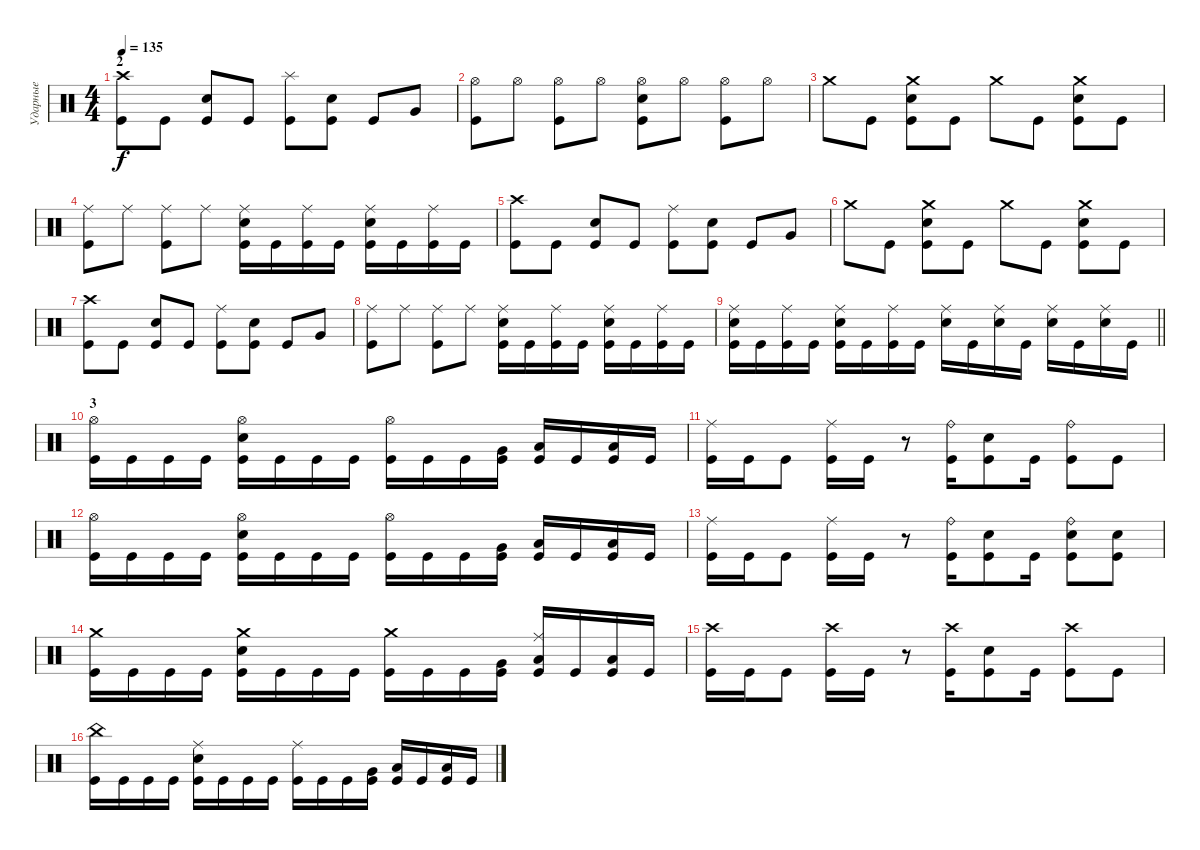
\track ("Ударные" "Ударные") {instrument percussion}
\staff {score}
\articulation defaults
\ts (4 4)
\section ("" "2")
\tempo 135
\clef neutral
\ks c
("Crash high (hit)" "Kick (hit)").8{dy f} "Kick (hit)".8 ("Electric Snare (hit)" "Kick (hit)").8 "Kick (hit)".8 ("Splash (hit)" "Kick (hit)").8 ("Electric Snare (hit)" "Kick (hit)").8 "Kick (hit)".8 "Very Low Tom (hit)".8 |
("Hi-Hat (open)" "Kick (hit)").8 "Hi-Hat (open)".8 ("Hi-Hat (open)" "Kick (hit)").8 "Hi-Hat (open)".8 ("Hi-Hat (open)" "Electric Snare (hit)" "Kick (hit)").8 "Hi-Hat (open)".8 ("Hi-Hat (open)" "Kick (hit)").8 "Hi-Hat (open)".8 |
"Crash medium (hit)".8 "Kick (hit)".8 ("Crash medium (hit)" "Electric Snare (hit)" "Kick (hit)").8 "Kick (hit)".8 "Crash medium (hit)".8 "Kick (hit)".8 ("Crash medium (hit)" "Electric Snare (hit)" "Kick (hit)").8 "Kick (hit)".8 |
("Ride (middle)" "Kick (hit)").8 "Ride (middle)".8 ("Ride (middle)" "Kick (hit)").8 "Ride (middle)".8 ("Ride (middle)" "Electric Snare (hit)" "Kick (hit)").16 "Kick (hit)".16 ("Ride (middle)" "Kick (hit)").16 "Kick (hit)".16 ("Ride (middle)" "Electric Snare (hit)" "Kick (hit)").16 "Kick (hit)".16 ("Ride (middle)" "Kick (hit)").16 "Kick (hit)".16 |
("Crash high (hit)" "Kick (hit)").8 "Kick (hit)".8 ("Electric Snare (hit)" "Kick (hit)").8 "Kick (hit)".8 ("Ride (middle)" "Kick (hit)").8 ("Electric Snare (hit)" "Kick (hit)").8 "Kick (hit)".8 "Very Low Tom (hit)".8 |
"Crash medium (hit)".8 "Kick (hit)".8 ("Crash medium (hit)" "Electric Snare (hit)" "Kick (hit)").8 "Kick (hit)".8 "Crash medium (hit)".8 "Kick (hit)".8 ("Crash medium (hit)" "Electric Snare (hit)" "Kick (hit)").8 "Kick (hit)".8 |
("Crash high (hit)" "Kick (hit)").8 "Kick (hit)".8 ("Electric Snare (hit)" "Kick (hit)").8 "Kick (hit)".8 ("Ride (middle)" "Kick (hit)").8 ("Electric Snare (hit)" "Kick (hit)").8 "Kick (hit)".8 "Very Low Tom (hit)".8 |
("Ride (middle)" "Kick (hit)").8 "Ride (middle)".8 ("Ride (middle)" "Kick (hit)").8 "Ride (middle)".8 ("Ride (middle)" "Electric Snare (hit)" "Kick (hit)").16 "Kick (hit)".16 ("Ride (middle)" "Kick (hit)").16 "Kick (hit)".16 ("Ride (middle)" "Electric Snare (hit)" "Kick (hit)").16 "Kick (hit)".16 ("Ride (middle)" "Kick (hit)").16 "Kick (hit)".16 |
\barLineRight lightlight
("Ride (middle)" "Electric Snare (hit)" "Kick (hit)").16 "Kick (hit)".16 ("Ride (middle)" "Kick (hit)").16 "Kick (hit)".16 ("Ride (middle)" "Electric Snare (hit)" "Kick (hit)").16 "Kick (hit)".16 ("Ride (middle)" "Kick (hit)").16 "Kick (hit)".16 ("Ride (middle)" "Electric Snare (hit)").16 "Kick (hit)".16 ("Ride (middle)" "Electric Snare (hit)").16 "Kick (hit)".16 ("Ride (middle)" "Electric Snare (hit)").16 "Kick (hit)".16 ("Ride (middle)" "Electric Snare (hit)").16 "Kick (hit)".16 |
\section ("" "3")
("Hi-Hat (open)" "Kick (hit)").16 "Kick (hit)".16 "Kick (hit)".16 "Kick (hit)".16 ("Hi-Hat (open)" "Electric Snare (hit)" "Kick (hit)").16 "Kick (hit)".16 "Kick (hit)".16 "Kick (hit)".16 ("Hi-Hat (open)" "Kick (hit)").16 "Kick (hit)".16 "Kick (hit)".16 ("Very Low Tom (hit)" "Kick (hit)").16 ("Low Tom (hit)" "Kick (hit)").16 "Kick (hit)".16 ("Low Tom (hit)" "Kick (hit)").16 "Kick (hit)".16 |
("Ride (middle)" "Kick (hit)").16 "Kick (hit)".16 "Kick (hit)".8 ("Ride (middle)" "Kick (hit)").16 "Kick (hit)".16 r.8 ("Ride (bell)" "Kick (hit)").16 ("Electric Snare (hit)" "Kick (hit)").8 "Kick (hit)".16 ("Ride (bell)" "Kick (hit)").8 "Kick (hit)".8 |
("Hi-Hat (open)" "Kick (hit)").16 "Kick (hit)".16 "Kick (hit)".16 "Kick (hit)".16 ("Hi-Hat (open)" "Electric Snare (hit)" "Kick (hit)").16 "Kick (hit)".16 "Kick (hit)".16 "Kick (hit)".16 ("Hi-Hat (open)" "Kick (hit)").16 "Kick (hit)".16 "Kick (hit)".16 ("Very Low Tom (hit)" "Kick (hit)").16 ("Low Tom (hit)" "Kick (hit)").16 "Kick (hit)".16 ("Low Tom (hit)" "Kick (hit)").16 "Kick (hit)".16 |
("Ride (middle)" "Kick (hit)").16 "Kick (hit)".16 "Kick (hit)".8 ("Ride (middle)" "Kick (hit)").16 "Kick (hit)".16 r.8 ("Ride (bell)" "Kick (hit)").16 ("Electric Snare (hit)" "Kick (hit)").8 "Kick (hit)".16 ("Ride (bell)" "Electric Snare (hit)" "Kick (hit)").8 ("Electric Snare (hit)" "Kick (hit)").8 |
("Crash medium (hit)" "Kick (hit)").16 "Kick (hit)".16 "Kick (hit)".16 "Kick (hit)".16 ("Crash medium (hit)" "Electric Snare (hit)" "Kick (hit)").16 "Kick (hit)".16 "Kick (hit)".16 "Kick (hit)".16 ("Crash medium (hit)" "Kick (hit)").16 "Kick (hit)".16 "Kick (hit)".16 ("Very Low Tom (hit)" "Kick (hit)").16 ("Ride (middle)" "Low Tom (hit)" "Kick (hit)").16 "Kick (hit)".16 ("Low Tom (hit)" "Kick (hit)").16 "Kick (hit)".16 |
("Crash high (hit)" "Kick (hit)").16 "Kick (hit)".16 "Kick (hit)".8 ("Crash high (hit)" "Kick (hit)").16 "Kick (hit)".16 r.8 ("Crash high (hit)" "Kick (hit)").16 ("Electric Snare (hit)" "Kick (hit)").8 "Kick (hit)".16 ("Crash high (hit)" "Kick (hit)").8 "Kick (hit)".8 |
("China (hit)" "Kick (hit)").16 "Kick (hit)".16 "Kick (hit)".16 "Kick (hit)".16 ("Ride (middle)" "Electric Snare (hit)" "Kick (hit)").16 "Kick (hit)".16 "Kick (hit)".16 "Kick (hit)".16 ("Ride (middle)" "Kick (hit)").16 "Kick (hit)".16 "Kick (hit)".16 ("Very Low Tom (hit)" "Kick (hit)").16 ("Low Tom (hit)" "Kick (hit)").16 "Kick (hit)".16 ("Low Tom (hit)" "Kick (hit)").16 "Kick (hit)".16
